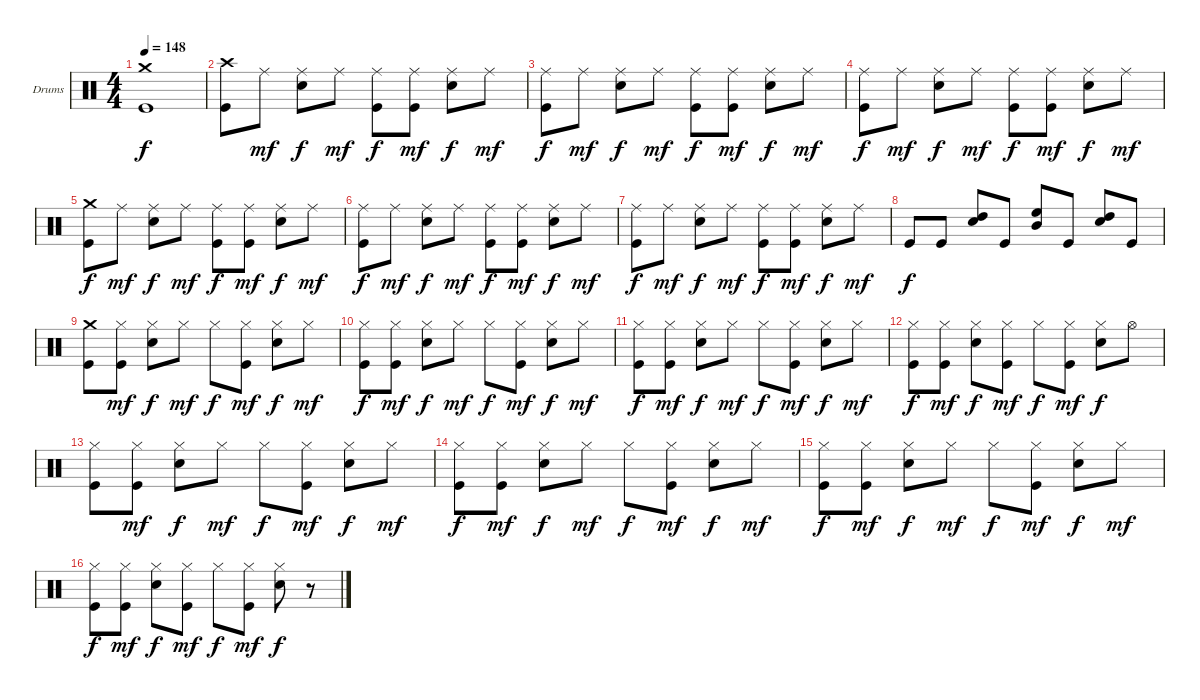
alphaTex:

\defaultSystemsLayout 4
\bracketExtendMode groupsimilarinstruments
\firstSystemTrackNameOrientation horizontal
\otherSystemsTrackNameOrientation horizontal
\track ("Drumkit" "Drums") {instrument percussion}
\staff {score}
\articulation defaults
\ts (4 4)
\tempo 148
\clef neutral
\scale
0.472222
\ks c
("Crash medium (hit)" "Kick (hit)").1{dy f} |
\scale
0.263889 ("Kick (hit)" "Crash high (hit)").8 "Ride (middle)".8{dy mf} ("Ride (middle)" "Snare (hit) 2").8{dy f} "Ride (middle)".8{dy mf} ("Ride (middle)" "Kick (hit)").8{dy f} ("Ride (middle)" "Kick (hit)").8{dy mf} ("Ride (middle)" "Snare (hit) 2").8{dy f} "Ride (middle)".8{dy mf} |
\scale
0.263889 ("Ride (middle)" "Kick (hit)").8{dy f} "Ride (middle)".8{dy mf} ("Ride (middle)" "Snare (hit) 2").8{dy f} "Ride (middle)".8{dy mf} ("Ride (middle)" "Kick (hit)").8{dy f} ("Ride (middle)" "Kick (hit)").8{dy mf} ("Ride (middle)" "Snare (hit) 2").8{dy f} "Ride (middle)".8{dy mf} |
\scale
0.333333 ("Ride (middle)" "Kick (hit)").8{dy f} "Ride (middle)".8{dy mf} ("Ride (middle)" "Snare (hit) 2").8{dy f} "Ride (middle)".8{dy mf} ("Ride (middle)" "Kick (hit)").8{dy f} ("Ride (middle)" "Kick (hit)").8{dy mf} ("Ride (middle)" "Snare (hit) 2").8{dy f} "Ride (middle)".8{dy mf} |
\scale
0.333333 ("Crash medium (hit)" "Kick (hit)").8{dy f} "Ride (middle)".8{dy mf} ("Ride (middle)" "Snare (hit) 2").8{dy f} "Ride (middle)".8{dy mf} ("Ride (middle)" "Kick (hit)").8{dy f} ("Ride (middle)" "Kick (hit)").8{dy mf} ("Ride (middle)" "Snare (hit) 2").8{dy f} "Ride (middle)".8{dy mf} |
\scale
0.333333 ("Ride (middle)" "Kick (hit)").8{dy f} "Ride (middle)".8{dy mf} ("Ride (middle)" "Snare (hit) 2").8{dy f} "Ride (middle)".8{dy mf} ("Ride (middle)" "Kick (hit)").8{dy f} ("Ride (middle)" "Kick (hit)").8{dy mf} ("Ride (middle)" "Snare (hit) 2").8{dy f} "Ride (middle)".8{dy mf} |
\scale
0.333333 ("Ride (middle)" "Kick (hit)").8{dy f} "Ride (middle)".8{dy mf} ("Ride (middle)" "Snare (hit) 2").8{dy f} "Ride (middle)".8{dy mf} ("Ride (middle)" "Kick (hit)").8{dy f} ("Ride (middle)" "Kick (hit)").8{dy mf} ("Ride (middle)" "Snare (hit) 2").8{dy f} "Ride (middle)".8{dy mf} |
\scale
0.333333 "Kick (hit)".8{dy f} "Kick (hit)".8 ("High Tom (hit)" "Snare (hit) 2").8 "Kick (hit)".8 ("High Floor Tom (hit)" "Mid Tom (hit)").8 "Kick (hit)".8 ("High Tom (hit)" "Snare (hit) 2").8 "Kick (hit)".8 |
\scale
0.333333 ("Crash medium (hit)" "Kick (hit)").8 ("Hi-Hat (closed)" "Kick (hit)").8{dy mf} ("Hi-Hat (closed)" "Snare (hit) 2").8{dy f} "Hi-Hat (closed)".8{dy mf} "Hi-Hat (closed)".8{dy f} ("Hi-Hat (closed)" "Kick (hit)").8{dy mf} ("Hi-Hat (closed)" "Snare (hit) 2").8{dy f} "Hi-Hat (closed)".8{dy mf} |
\scale
0.333333 ("Hi-Hat (closed)" "Kick (hit)").8{dy f} ("Hi-Hat (closed)" "Kick (hit)").8{dy mf} ("Hi-Hat (closed)" "Snare (hit) 2").8{dy f} "Hi-Hat (closed)".8{dy mf} "Hi-Hat (closed)".8{dy f} ("Hi-Hat (closed)" "Kick (hit)").8{dy mf} ("Hi-Hat (closed)" "Snare (hit) 2").8{dy f} "Hi-Hat (closed)".8{dy mf} |
\scale
0.333333 ("Hi-Hat (closed)" "Kick (hit)").8{dy f} ("Hi-Hat (closed)" "Kick (hit)").8{dy mf} ("Hi-Hat (closed)" "Snare (hit) 2").8{dy f} "Hi-Hat (closed)".8{dy mf} "Hi-Hat (closed)".8{dy f} ("Hi-Hat (closed)" "Kick (hit)").8{dy mf} ("Hi-Hat (closed)" "Snare (hit) 2").8{dy f} "Hi-Hat (closed)".8{dy mf} |
\scale
0.333333 ("Hi-Hat (closed)" "Kick (hit)").8{dy f} ("Hi-Hat (closed)" "Kick (hit)").8{dy mf} ("Hi-Hat (closed)" "Snare (hit) 2").8{dy f} ("Hi-Hat (closed)" "Kick (hit)").8{dy mf} "Hi-Hat (closed)".8{dy f} ("Hi-Hat (closed)" "Kick (hit)").8{dy mf} ("Hi-Hat (closed)" "Snare (hit) 2").8{dy f} "Hi-Hat (open)".8 |
\scale
0.333333 ("Hi-Hat (closed)" "Kick (hit)").8 ("Hi-Hat (closed)" "Kick (hit)").8{dy mf} ("Hi-Hat (closed)" "Snare (hit) 2").8{dy f} "Hi-Hat (closed)".8{dy mf} "Hi-Hat (closed)".8{dy f} ("Hi-Hat (closed)" "Kick (hit)").8{dy mf} ("Hi-Hat (closed)" "Snare (hit) 2").8{dy f} "Hi-Hat (closed)".8{dy mf} |
\scale
0.333333 ("Hi-Hat (closed)" "Kick (hit)").8{dy f} ("Hi-Hat (closed)" "Kick (hit)").8{dy mf} ("Hi-Hat (closed)" "Snare (hit) 2").8{dy f} "Hi-Hat (closed)".8{dy mf} "Hi-Hat (closed)".8{dy f} ("Hi-Hat (closed)" "Kick (hit)").8{dy mf} ("Hi-Hat (closed)" "Snare (hit) 2").8{dy f} "Hi-Hat (closed)".8{dy mf} |
\scale
0.333333 ("Hi-Hat (closed)" "Kick (hit)").8{dy f} ("Hi-Hat (closed)" "Kick (hit)").8{dy mf} ("Hi-Hat (closed)" "Snare (hit) 2").8{dy f} "Hi-Hat (closed)".8{dy mf} "Hi-Hat (closed)".8{dy f} ("Hi-Hat (closed)" "Kick (hit)").8{dy mf} ("Hi-Hat (closed)" "Snare (hit) 2").8{dy f} "Hi-Hat (closed)".8{dy mf} |
\scale
0.333333 ("Hi-Hat (closed)" "Kick (hit)").8{dy f} ("Hi-Hat (closed)" "Kick (hit)").8{dy mf} ("Hi-Hat (closed)" "Snare (hit) 2").8{dy f} ("Hi-Hat (closed)" "Kick (hit)").8{dy mf} "Hi-Hat (closed)".8{dy f} ("Hi-Hat (closed)" "Kick (hit)").8{dy mf} ("Hi-Hat (closed)" "Snare (hit) 2").8{dy f} r.8
